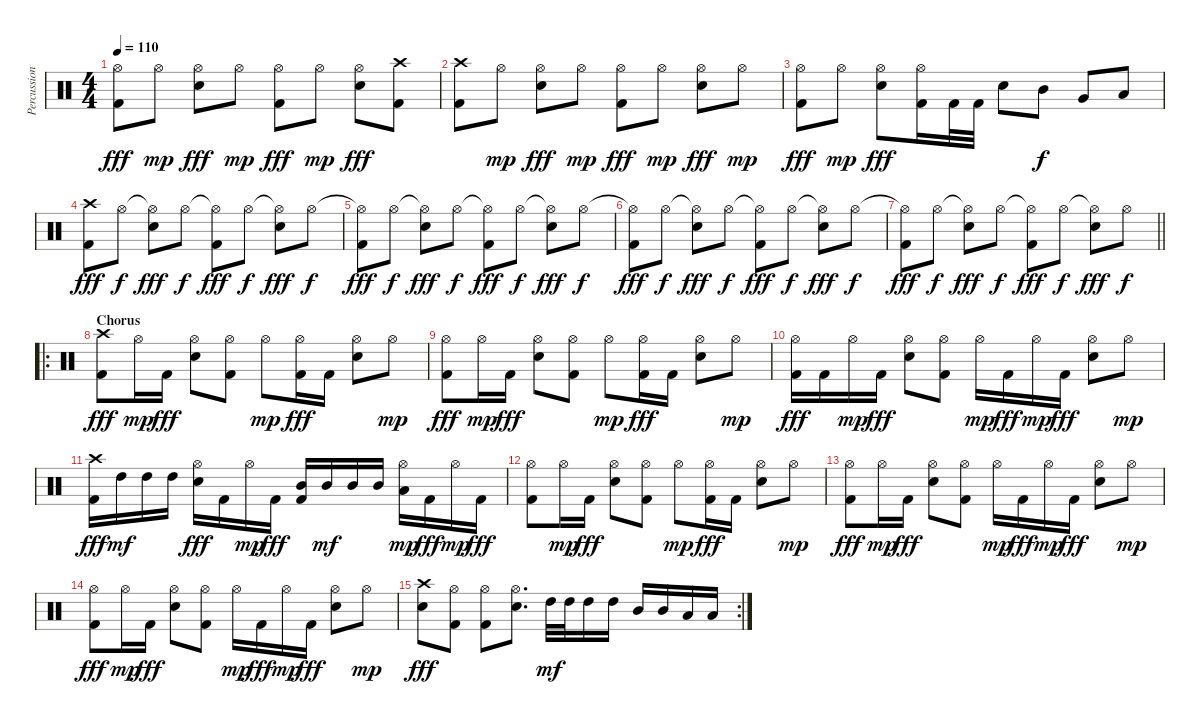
\track ("Percussion" "Percussion") {instrument percussion}
\staff {score}
\articulation defaults
\ts (4 4)
\tempo 110
\clef neutral
\ks c
("Hi-Hat (open)" "Kick (hit) 2").8{dy fff} "Hi-Hat (open)".8{dy mp} ("Hi-Hat (open)" "Snare (hit) 2").8{dy fff} "Hi-Hat (open)".8{dy mp} ("Hi-Hat (open)" "Kick (hit) 2").8{dy fff} "Hi-Hat (open)".8{dy mp} ("Hi-Hat (open)" "Snare (hit) 2").8{dy fff} ("Crash high (hit)" "Kick (hit) 2").8 |
("Crash high (hit)" "Kick (hit) 2").8 "Hi-Hat (open)".8{dy mp} ("Hi-Hat (open)" "Snare (hit) 2").8{dy fff} "Hi-Hat (open)".8{dy mp} ("Hi-Hat (open)" "Kick (hit) 2").8{dy fff} "Hi-Hat (open)".8{dy mp} ("Hi-Hat (open)" "Snare (hit) 2").8{dy fff} "Hi-Hat (open)".8{dy mp} |
("Hi-Hat (open)" "Kick (hit) 2").8{dy fff} "Hi-Hat (open)".8{dy mp} ("Hi-Hat (open)" "Snare (hit) 2").8{dy fff} ("Hi-Hat (open)" "Kick (hit) 2").16 "Kick (hit) 2".32 "Kick (hit) 2".32 "Snare (hit) 2".8 "Mid Tom (hit)".8{dy f} "Very Low Tom (hit)".8 "Low Floor Tom (hit)".8 |
("Crash high (hit)" "Kick (hit) 2").8{dy fff} "Hi-Hat (open)".8{dy f} ("Hi-Hat (open)"{t} "Snare (hit) 2").8{dy fff} "Hi-Hat (open)".8{dy f} ("Hi-Hat (open)"{t} "Kick (hit) 2").8{dy fff} "Hi-Hat (open)".8{dy f} ("Hi-Hat (open)"{t} "Snare (hit) 2").8{dy fff} "Hi-Hat (open)".8{dy f} |
("Hi-Hat (open)"{t} "Kick (hit) 2").8{dy fff} "Hi-Hat (open)".8{dy f} ("Hi-Hat (open)"{t} "Snare (hit) 2").8{dy fff} "Hi-Hat (open)".8{dy f} ("Hi-Hat (open)"{t} "Kick (hit) 2").8{dy fff} "Hi-Hat (open)".8{dy f} ("Hi-Hat (open)"{t} "Snare (hit) 2").8{dy fff} "Hi-Hat (open)".8{dy f} |
("Hi-Hat (open)"{t} "Kick (hit) 2").8{dy fff} "Hi-Hat (open)".8{dy f} ("Hi-Hat (open)"{t} "Snare (hit) 2").8{dy fff} "Hi-Hat (open)".8{dy f} ("Hi-Hat (open)"{t} "Kick (hit) 2").8{dy fff} "Hi-Hat (open)".8{dy f} ("Hi-Hat (open)"{t} "Snare (hit) 2").8{dy fff} "Hi-Hat (open)".8{dy f} |
\barLineRight lightlight
("Hi-Hat (open)"{t} "Kick (hit) 2").8{dy fff} "Hi-Hat (open)".8{dy f} ("Hi-Hat (open)"{t} "Snare (hit) 2").8{dy fff} "Hi-Hat (open)".8{dy f} ("Hi-Hat (open)"{t} "Kick (hit) 2").8{dy fff} "Hi-Hat (open)".8{dy f} ("Hi-Hat (open)"{t} "Snare (hit) 2").8{dy fff} "Hi-Hat (open)".8{dy f} |
\ro
\section ("" "Chorus")
("Crash high (hit)" "Kick (hit) 2").8{dy fff} "Hi-Hat (open)".16{dy mp} "Kick (hit) 2".16{dy fff} ("Hi-Hat (open)" "Snare (hit) 2").8 ("Hi-Hat (open)" "Kick (hit) 2").8 "Hi-Hat (open)".8{dy mp} ("Hi-Hat (open)" "Kick (hit) 2").16{dy fff} "Kick (hit) 2".16 ("Hi-Hat (open)" "Snare (hit) 2").8 "Hi-Hat (open)".8{dy mp} |
("Hi-Hat (open)" "Kick (hit) 2").8{dy fff} "Hi-Hat (open)".16{dy mp} "Kick (hit) 2".16{dy fff} ("Hi-Hat (open)" "Snare (hit) 2").8 ("Hi-Hat (open)" "Kick (hit) 2").8 "Hi-Hat (open)".8{dy mp} ("Hi-Hat (open)" "Kick (hit) 2").16{dy fff} "Kick (hit) 2".16 ("Hi-Hat (open)" "Snare (hit) 2").8 "Hi-Hat (open)".8{dy mp} |
("Hi-Hat (open)" "Kick (hit) 2").16{dy fff} "Kick (hit) 2".16 "Hi-Hat (open)".16{dy mp} "Kick (hit) 2".16{dy fff} ("Hi-Hat (open)" "Snare (hit) 2").8 ("Hi-Hat (open)" "Kick (hit) 2").8 "Hi-Hat (open)".16{dy mp} "Kick (hit) 2".16{dy fff} "Hi-Hat (open)".16{dy mp} "Kick (hit) 2".16{dy fff} ("Hi-Hat (open)" "Snare (hit) 2").8 "Hi-Hat (open)".8{dy mp} |
("Crash high (hit)" "Kick (hit) 2").16{dy fff} "High Tom (hit)".16{dy mf} "High Tom (hit)".16 "High Tom (hit)".16 ("Hi-Hat (open)" "Snare (hit) 2").16{dy fff} "Kick (hit) 2".16 "Hi-Hat (open)".16{dy mp} "Kick (hit) 2".16{dy fff} ("Mid Tom (hit)" "Kick (hit) 2").16 "Mid Tom (hit)".16{dy mf} "Mid Tom (hit)".16 "Mid Tom (hit)".16 ("Hi-Hat (open)" "Low Tom (hit)").16{dy mp} "Kick (hit) 2".16{dy fff} "Hi-Hat (open)".16{dy mp} "Kick (hit) 2".16{dy fff} |
("Hi-Hat (open)" "Kick (hit) 2").8 "Hi-Hat (open)".16{dy mp} "Kick (hit) 2".16{dy fff} ("Hi-Hat (open)" "Snare (hit) 2").8 ("Hi-Hat (open)" "Kick (hit) 2").8 "Hi-Hat (open)".8{dy mp} ("Hi-Hat (open)" "Kick (hit) 2").16{dy fff} "Kick (hit) 2".16 ("Hi-Hat (open)" "Snare (hit) 2").8 "Hi-Hat (open)".8{dy mp} |
("Hi-Hat (open)" "Kick (hit) 2").8{dy fff} "Hi-Hat (open)".16{dy mp} "Kick (hit) 2".16{dy fff} ("Hi-Hat (open)" "Snare (hit) 2").8 ("Hi-Hat (open)" "Kick (hit) 2").8 "Hi-Hat (open)".16{dy mp} "Kick (hit) 2".16{dy fff} "Hi-Hat (open)".16{dy mp} "Kick (hit) 2".16{dy fff} ("Hi-Hat (open)" "Snare (hit) 2").8 "Hi-Hat (open)".8{dy mp} |
("Hi-Hat (open)" "Kick (hit) 2").8{dy fff} "Hi-Hat (open)".16{dy mp} "Kick (hit) 2".16{dy fff} ("Hi-Hat (open)" "Snare (hit) 2").8 ("Hi-Hat (open)" "Kick (hit) 2").8 "Hi-Hat (open)".16{dy mp} "Kick (hit) 2".16{dy fff} "Hi-Hat (open)".16{dy mp} "Kick (hit) 2".16{dy fff} ("Hi-Hat (open)" "Snare (hit) 2").8 "Hi-Hat (open)".8{dy mp} |
\rc 2
("Crash high (hit)" "Snare (hit) 2").8{dy fff} ("Hi-Hat (open)" "Kick (hit) 2").8 ("Hi-Hat (open)" "Kick (hit) 2").8 ("Hi-Hat (open)" "Snare (hit) 2").8{d} "High Tom (hit)".32{dy mf} "High Tom (hit)".32 "High Tom (hit)".16 "High Tom (hit)".16 "Mid Tom (hit)".16 "Mid Tom (hit)".16 "Low Tom (hit)".16 "Low Tom (hit)".16
